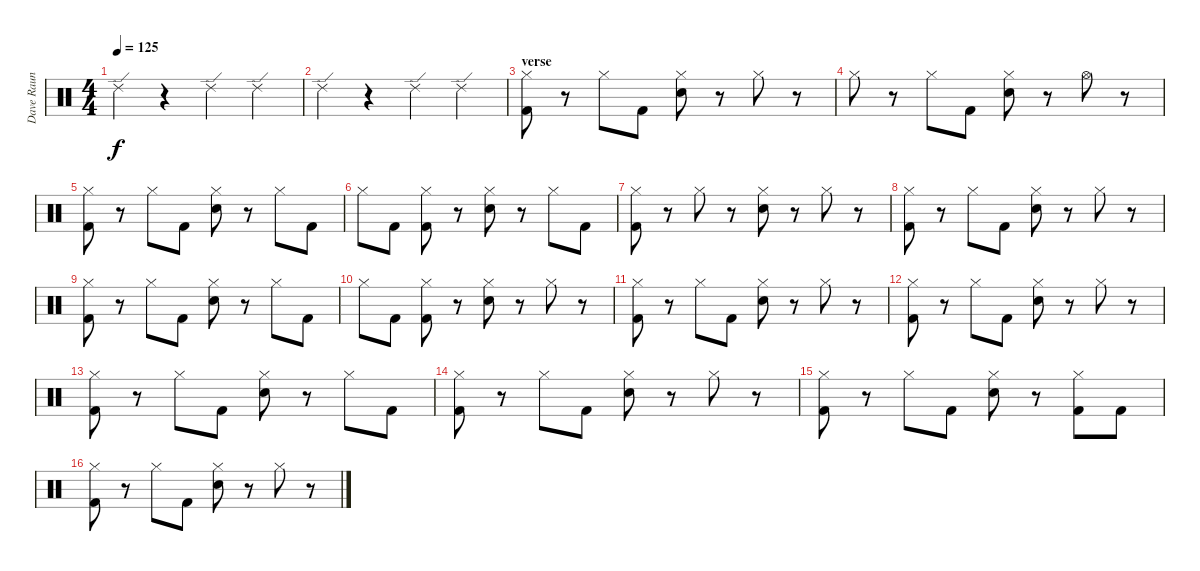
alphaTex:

\track ("Dave Raun" "Dave Raun") {instrument percussion}
\staff {score}
\articulation defaults
\ts (4 4)
\tempo 125
\clef neutral
\ks c "Ride (edge) 2".4{dy f}
r.4 "Ride (edge) 2".4 "Ride (edge) 2".4 |
"Ride (edge) 2".4 r.4 "Ride (edge) 2".4 "Ride (edge) 2".4 |
\section ("" "verse")
("Hi-Hat (closed)" "Kick (hit) 2").8 r.8 "Hi-Hat (closed)".8 "Kick (hit) 2".8 ("Hi-Hat (closed)" "Electric Snare (hit)").8 r.8 "Hi-Hat (closed)".8 r.8 |
"Hi-Hat (closed)".8 r.8 "Hi-Hat (closed)".8 "Kick (hit) 2".8 ("Hi-Hat (closed)" "Electric Snare (hit)").8 r.8 "Hi-Hat (open)".8 r.8 |
("Hi-Hat (closed)" "Kick (hit) 2").8 r.8 "Hi-Hat (closed)".8 "Kick (hit) 2".8 ("Hi-Hat (closed)" "Electric Snare (hit)").8 r.8 "Hi-Hat (closed)".8 "Kick (hit) 2".8 |
"Hi-Hat (closed)".8 "Kick (hit) 2".8 ("Hi-Hat (closed)" "Kick (hit) 2").8 r.8 ("Hi-Hat (closed)" "Electric Snare (hit)").8 r.8 "Hi-Hat (closed)".8 "Kick (hit) 2".8 |
("Hi-Hat (closed)" "Kick (hit) 2").8 r.8 "Hi-Hat (closed)".8 r.8 ("Hi-Hat (closed)" "Electric Snare (hit)").8 r.8 "Hi-Hat (closed)".8 r.8 |
("Hi-Hat (closed)" "Kick (hit) 2").8 r.8 "Hi-Hat (closed)".8 "Kick (hit) 2".8 ("Hi-Hat (closed)" "Electric Snare (hit)").8 r.8 "Hi-Hat (closed)".8 r.8 |
("Hi-Hat (closed)" "Kick (hit) 2").8 r.8 "Hi-Hat (closed)".8 "Kick (hit) 2".8 ("Hi-Hat (closed)" "Electric Snare (hit)").8 r.8 "Hi-Hat (closed)".8 "Kick (hit) 2".8 |
"Hi-Hat (closed)".8 "Kick (hit) 2".8 ("Hi-Hat (closed)" "Kick (hit) 2").8 r.8 ("Hi-Hat (closed)" "Electric Snare (hit)").8 r.8 "Hi-Hat (closed)".8 r.8 |
("Hi-Hat (closed)" "Kick (hit) 2").8 r.8 "Hi-Hat (closed)".8 "Kick (hit) 2".8 ("Hi-Hat (closed)" "Electric Snare (hit)").8 r.8 "Hi-Hat (closed)".8 r.8 |
("Hi-Hat (closed)" "Kick (hit) 2").8 r.8 "Hi-Hat (closed)".8 "Kick (hit) 2".8 ("Hi-Hat (closed)" "Electric Snare (hit)").8 r.8 "Hi-Hat (closed)".8 r.8 |
("Hi-Hat (closed)" "Kick (hit) 2").8 r.8 "Hi-Hat (closed)".8 "Kick (hit) 2".8 ("Hi-Hat (closed)" "Electric Snare (hit)").8 r.8 "Hi-Hat (closed)".8 "Kick (hit) 2".8 |
("Hi-Hat (closed)" "Kick (hit) 2").8 r.8 "Hi-Hat (closed)".8 "Kick (hit) 2".8 ("Hi-Hat (closed)" "Electric Snare (hit)").8 r.8 "Hi-Hat (closed)".8 r.8 |
("Hi-Hat (closed)" "Kick (hit) 2").8 r.8 "Hi-Hat (closed)".8 "Kick (hit) 2".8 ("Hi-Hat (closed)" "Electric Snare (hit)").8 r.8 ("Hi-Hat (closed)" "Kick (hit) 2").8 "Kick (hit) 2".8 |
("Hi-Hat (closed)" "Kick (hit) 2").8 r.8 "Hi-Hat (closed)".8 "Kick (hit) 2".8 ("Hi-Hat (closed)" "Electric Snare (hit)").8 r.8 "Hi-Hat (closed)".8 r.8
